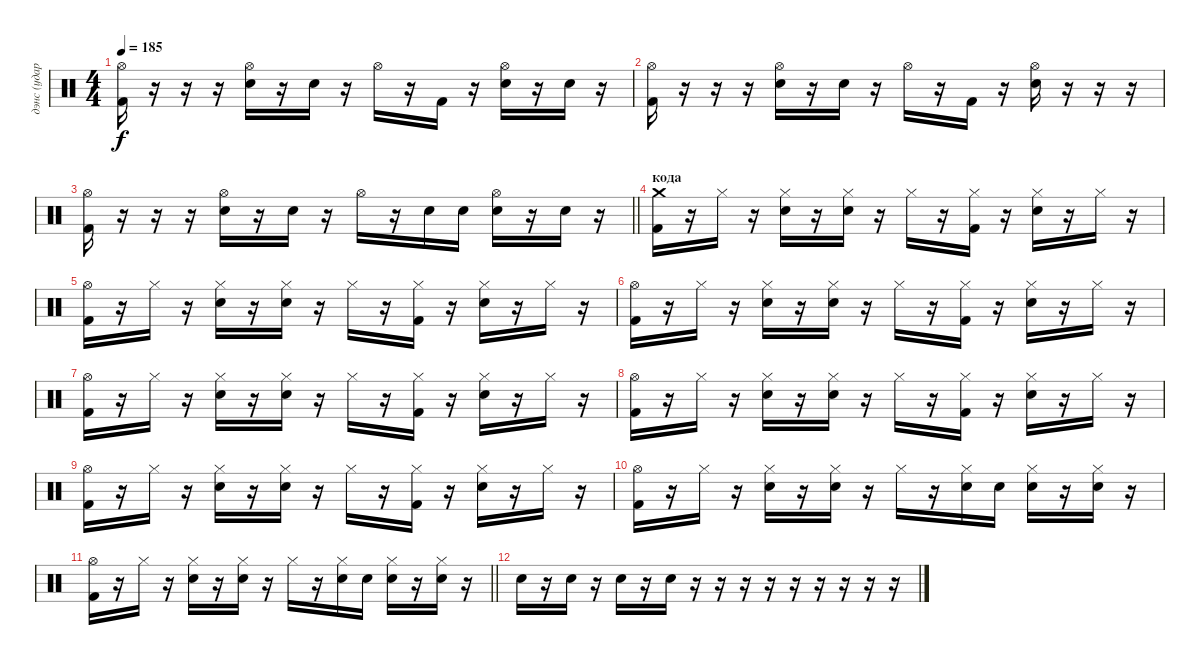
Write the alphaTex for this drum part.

\track ("дэнс (ударные)" "дэнс (удар") {instrument percussion}
\staff {score}
\articulation defaults
\ts (4 4)
\tempo 185
\clef neutral
\ks c
("Kick (hit) 2" "Hi-Hat (open)").16{dy f} r.16 r.16 r.16 ("Snare (hit) 2" "Hi-Hat (open)").16 r.16 "Snare (hit) 2".16 r.16 "Hi-Hat (open)".16 r.16 "Kick (hit) 2".16 r.16 ("Snare (hit) 2" "Hi-Hat (open)").16 r.16 "Snare (hit) 2".16 r.16 |
("Kick (hit) 2" "Hi-Hat (open)").16 r.16 r.16 r.16 ("Snare (hit) 2" "Hi-Hat (open)").16 r.16 "Snare (hit) 2".16 r.16 "Hi-Hat (open)".16 r.16 "Kick (hit) 2".16 r.16 ("Snare (hit) 2" "Hi-Hat (open)").16 r.16 r.16 r.16 |
\barLineRight lightlight
("Kick (hit) 2" "Hi-Hat (open)").16 r.16 r.16 r.16 ("Snare (hit) 2" "Hi-Hat (open)").16 r.16 "Snare (hit) 2".16 r.16 "Hi-Hat (open)".16 r.16 "Snare (hit) 2".16 "Snare (hit) 2".16 ("Snare (hit) 2" "Hi-Hat (open)").16 r.16 "Snare (hit) 2".16 r.16 |
\section ("" "кода")
("Kick (hit) 2" "Crash medium (hit)").16 r.16 "Hi-Hat (closed)".16 r.16 ("Snare (hit) 2" "Hi-Hat (closed)").16 r.16 ("Snare (hit) 2" "Hi-Hat (closed)").16 r.16 "Hi-Hat (closed)".16 r.16 ("Kick (hit) 2" "Hi-Hat (closed)").16 r.16 ("Snare (hit) 2" "Hi-Hat (closed)").16 r.16 "Hi-Hat (closed)".16 r.16 |
("Kick (hit) 2" "Hi-Hat (open)").16 r.16 "Hi-Hat (closed)".16 r.16 ("Snare (hit) 2" "Hi-Hat (closed)").16 r.16 ("Snare (hit) 2" "Hi-Hat (closed)").16 r.16 "Hi-Hat (closed)".16 r.16 ("Kick (hit) 2" "Hi-Hat (closed)").16 r.16 ("Snare (hit) 2" "Hi-Hat (closed)").16 r.16 "Hi-Hat (closed)".16 r.16 |
("Kick (hit) 2" "Hi-Hat (open)").16 r.16 "Hi-Hat (closed)".16 r.16 ("Snare (hit) 2" "Hi-Hat (closed)").16 r.16 ("Snare (hit) 2" "Hi-Hat (closed)").16 r.16 "Hi-Hat (closed)".16 r.16 ("Kick (hit) 2" "Hi-Hat (closed)").16 r.16 ("Snare (hit) 2" "Hi-Hat (closed)").16 r.16 "Hi-Hat (closed)".16 r.16 |
("Kick (hit) 2" "Hi-Hat (open)").16 r.16 "Hi-Hat (closed)".16 r.16 ("Snare (hit) 2" "Hi-Hat (closed)").16 r.16 ("Snare (hit) 2" "Hi-Hat (closed)").16 r.16 "Hi-Hat (closed)".16 r.16 ("Kick (hit) 2" "Hi-Hat (closed)").16 r.16 ("Snare (hit) 2" "Hi-Hat (closed)").16 r.16 "Hi-Hat (closed)".16 r.16 |
("Kick (hit) 2" "Hi-Hat (open)").16 r.16 "Hi-Hat (closed)".16 r.16 ("Snare (hit) 2" "Hi-Hat (closed)").16 r.16 ("Snare (hit) 2" "Hi-Hat (closed)").16 r.16 "Hi-Hat (closed)".16 r.16 ("Kick (hit) 2" "Hi-Hat (closed)").16 r.16 ("Snare (hit) 2" "Hi-Hat (closed)").16 r.16 "Hi-Hat (closed)".16 r.16 |
("Kick (hit) 2" "Hi-Hat (open)").16 r.16 "Hi-Hat (closed)".16 r.16 ("Snare (hit) 2" "Hi-Hat (closed)").16 r.16 ("Snare (hit) 2" "Hi-Hat (closed)").16 r.16 "Hi-Hat (closed)".16 r.16 ("Kick (hit) 2" "Hi-Hat (closed)").16 r.16 ("Snare (hit) 2" "Hi-Hat (closed)").16 r.16 "Hi-Hat (closed)".16 r.16 |
("Kick (hit) 2" "Hi-Hat (open)").16 r.16 "Hi-Hat (closed)".16 r.16 ("Snare (hit) 2" "Hi-Hat (closed)").16 r.16 ("Snare (hit) 2" "Hi-Hat (closed)").16 r.16 "Hi-Hat (closed)".16 r.16 ("Snare (hit) 2" "Hi-Hat (closed)").16 "Snare (hit) 2".16 ("Snare (hit) 2" "Hi-Hat (closed)").16 r.16 ("Snare (hit) 2" "Hi-Hat (closed)").16 r.16 |
\barLineRight lightlight
("Kick (hit) 2" "Hi-Hat (open)").16 r.16 "Hi-Hat (closed)".16 r.16 ("Snare (hit) 2" "Hi-Hat (closed)").16 r.16 ("Snare (hit) 2" "Hi-Hat (closed)").16 r.16 "Hi-Hat (closed)".16 r.16 ("Snare (hit) 2" "Hi-Hat (closed)").16 "Snare (hit) 2".16 ("Snare (hit) 2" "Hi-Hat (closed)").16 r.16 ("Snare (hit) 2" "Hi-Hat (closed)").16 r.16 |
"Snare (hit) 2".16 r.16 "Snare (hit) 2".16 r.16 "Snare (hit) 2".16 r.16 "Snare (hit) 2".16 r.16 r.16 r.16 r.16 r.16 r.16 r.16 r.16 r.16
